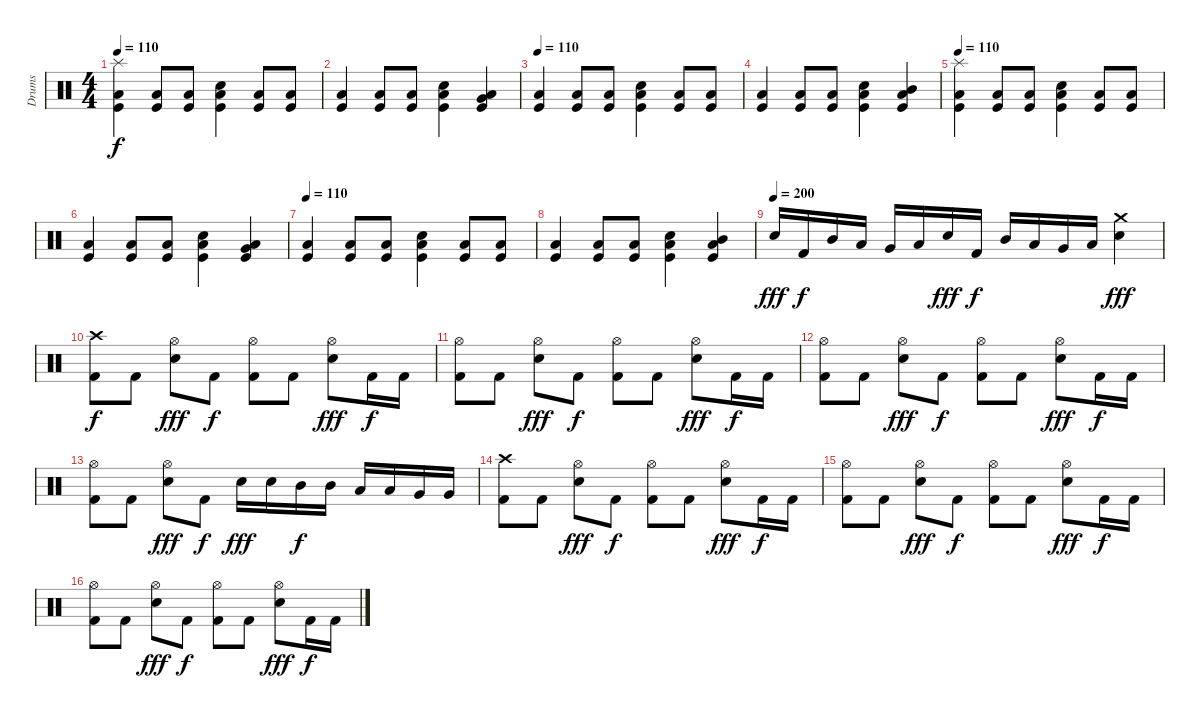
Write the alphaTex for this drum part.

\track ("Drums" "Drums") {instrument percussion}
\staff {score}
\articulation defaults
\ts (4 4)
\tempo 110
\clef neutral
\ks c
("Splash (hit)" "Low Floor Tom (hit)" "Kick (hit)").4{dy f} ("Low Floor Tom (hit)" "Kick (hit)").8 ("Low Floor Tom (hit)" "Kick (hit)").8 ("Snare (hit) 2" "Low Floor Tom (hit)" "Kick (hit)").4 ("Low Floor Tom (hit)" "Kick (hit)").8 ("Low Floor Tom (hit)" "Kick (hit)").8 |
("Low Floor Tom (hit)" "Kick (hit)").4 ("Low Floor Tom (hit)" "Kick (hit)").8 ("Low Floor Tom (hit)" "Kick (hit)").8 ("Snare (hit) 2" "Low Floor Tom (hit)" "Kick (hit)").4 ("Very Low Tom (hit)" "Low Floor Tom (hit)" "Kick (hit)").4 |
\tempo 110
("Low Floor Tom (hit)" "Kick (hit)").4 ("Low Floor Tom (hit)" "Kick (hit)").8 ("Low Floor Tom (hit)" "Kick (hit)").8 ("Snare (hit) 2" "Low Floor Tom (hit)" "Kick (hit)").4 ("Low Floor Tom (hit)" "Kick (hit)").8 ("Low Floor Tom (hit)" "Kick (hit)").8 |
("Low Floor Tom (hit)" "Kick (hit)").4 ("Low Floor Tom (hit)" "Kick (hit)").8 ("Low Floor Tom (hit)" "Kick (hit)").8 ("Snare (hit) 2" "Low Floor Tom (hit)" "Kick (hit)").4 ("Mid Tom (hit)" "Low Floor Tom (hit)" "Kick (hit)").4 |
\tempo 110
("Splash (hit)" "Low Floor Tom (hit)" "Kick (hit)").4 ("Low Floor Tom (hit)" "Kick (hit)").8 ("Low Floor Tom (hit)" "Kick (hit)").8 ("Snare (hit) 2" "Low Floor Tom (hit)" "Kick (hit)").4 ("Low Floor Tom (hit)" "Kick (hit)").8 ("Low Floor Tom (hit)" "Kick (hit)").8 |
("Low Floor Tom (hit)" "Kick (hit)").4 ("Low Floor Tom (hit)" "Kick (hit)").8 ("Low Floor Tom (hit)" "Kick (hit)").8 ("Snare (hit) 2" "Low Floor Tom (hit)" "Kick (hit)").4 ("Very Low Tom (hit)" "Low Floor Tom (hit)" "Kick (hit)").4 |
\tempo 110
("Low Floor Tom (hit)" "Kick (hit)").4 ("Low Floor Tom (hit)" "Kick (hit)").8 ("Low Floor Tom (hit)" "Kick (hit)").8 ("Snare (hit) 2" "Low Floor Tom (hit)" "Kick (hit)").4 ("Low Floor Tom (hit)" "Kick (hit)").8 ("Low Floor Tom (hit)" "Kick (hit)").8 |
("Low Floor Tom (hit)" "Kick (hit)").4 ("Low Floor Tom (hit)" "Kick (hit)").8 ("Low Floor Tom (hit)" "Kick (hit)").8 ("Snare (hit) 2" "Low Floor Tom (hit)" "Kick (hit)").4 ("Mid Tom (hit)" "Low Floor Tom (hit)" "Kick (hit)").4 |
\tempo (200)
"Snare (hit) 2".16{dy fff} "Kick (hit) 2".16{dy f} "Mid Tom (hit)".16 "Low Tom (hit)".16 "Very Low Tom (hit)".16 "Low Floor Tom (hit)".16 "Snare (hit) 2".16{dy fff} "Kick (hit) 2".16{dy f} "Mid Tom (hit)".16 "Low Tom (hit)".16 "Very Low Tom (hit)".16 "Low Floor Tom (hit)".16 ("Crash medium (hit)" "Snare (hit) 2").4{dy fff} |
("Crash high (hit)" "Kick (hit) 2").8{dy f} "Kick (hit) 2".8 ("Hi-Hat (open)" "Snare (hit) 2").8{dy fff} "Kick (hit) 2".8{dy f} ("Hi-Hat (open)" "Kick (hit) 2").8 "Kick (hit) 2".8 ("Hi-Hat (open)" "Snare (hit) 2").8{dy fff} "Kick (hit) 2".16{dy f} "Kick (hit) 2".16 |
("Hi-Hat (open)" "Kick (hit) 2").8 "Kick (hit) 2".8 ("Hi-Hat (open)" "Snare (hit) 2").8{dy fff} "Kick (hit) 2".8{dy f} ("Hi-Hat (open)" "Kick (hit) 2").8 "Kick (hit) 2".8 ("Hi-Hat (open)" "Snare (hit) 2").8{dy fff} "Kick (hit) 2".16{dy f} "Kick (hit) 2".16 |
("Hi-Hat (open)" "Kick (hit) 2").8 "Kick (hit) 2".8 ("Hi-Hat (open)" "Snare (hit) 2").8{dy fff} "Kick (hit) 2".8{dy f} ("Hi-Hat (open)" "Kick (hit) 2").8 "Kick (hit) 2".8 ("Hi-Hat (open)" "Snare (hit) 2").8{dy fff} "Kick (hit) 2".16{dy f} "Kick (hit) 2".16 |
("Hi-Hat (open)" "Kick (hit) 2").8 "Kick (hit) 2".8 ("Hi-Hat (open)" "Snare (hit) 2").8{dy fff} "Kick (hit) 2".8{dy f} "Snare (hit) 2".16{dy fff} "Snare (hit) 2".16 "Mid Tom (hit)".16{dy f} "Mid Tom (hit)".16 "Low Tom (hit)".16 "Low Tom (hit)".16 "Very Low Tom (hit)".16 "Very Low Tom (hit)".16 |
("Crash high (hit)" "Kick (hit) 2").8 "Kick (hit) 2".8 ("Hi-Hat (open)" "Snare (hit) 2").8{dy fff} "Kick (hit) 2".8{dy f} ("Hi-Hat (open)" "Kick (hit) 2").8 "Kick (hit) 2".8 ("Hi-Hat (open)" "Snare (hit) 2").8{dy fff} "Kick (hit) 2".16{dy f} "Kick (hit) 2".16 |
("Hi-Hat (open)" "Kick (hit) 2").8 "Kick (hit) 2".8 ("Hi-Hat (open)" "Snare (hit) 2").8{dy fff} "Kick (hit) 2".8{dy f} ("Hi-Hat (open)" "Kick (hit) 2").8 "Kick (hit) 2".8 ("Hi-Hat (open)" "Snare (hit) 2").8{dy fff} "Kick (hit) 2".16{dy f} "Kick (hit) 2".16 |
("Hi-Hat (open)" "Kick (hit) 2").8 "Kick (hit) 2".8 ("Hi-Hat (open)" "Snare (hit) 2").8{dy fff} "Kick (hit) 2".8{dy f} ("Hi-Hat (open)" "Kick (hit) 2").8 "Kick (hit) 2".8 ("Hi-Hat (open)" "Snare (hit) 2").8{dy fff} "Kick (hit) 2".16{dy f} "Kick (hit) 2".16
